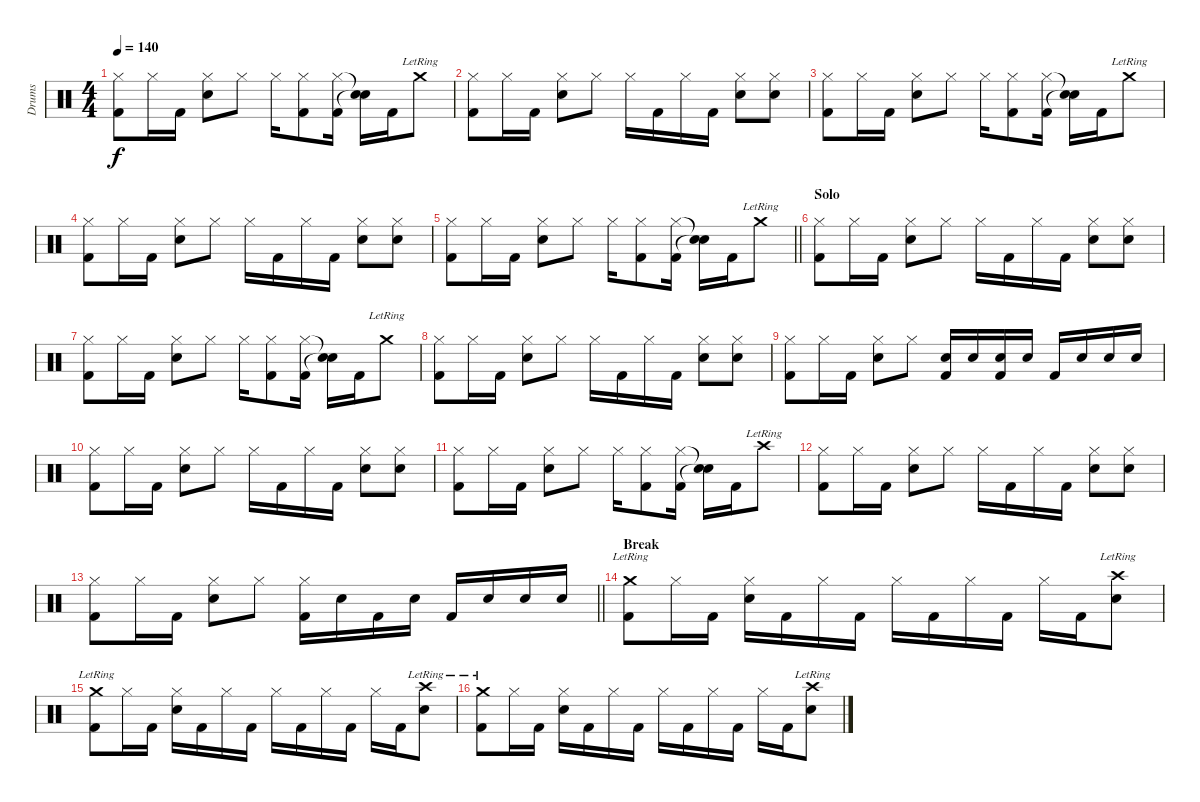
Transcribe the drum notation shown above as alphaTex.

\track ("Drums" "Drums") {instrument percussion}
\staff {score}
\articulation defaults
\ts (4 4)
\tempo 140
\clef neutral
\ks c
("Hi-Hat (closed)" "Kick (hit) 2").8{dy f} "Hi-Hat (closed)".16 "Kick (hit) 2".16 ("Hi-Hat (closed)" "Snare (hit) 2").8 "Hi-Hat (closed)".8 "Hi-Hat (closed)".16 ("Hi-Hat (closed)" "Kick (hit) 2").8 ("Hi-Hat (closed)" "Kick (hit) 2").16 ("Snare (hit)"{t} "Snare (hit)"{t}).16 "Kick (hit) 2".16 "Crash medium (hit)"{lr}.8 |
("Hi-Hat (closed)" "Kick (hit) 2").8 "Hi-Hat (closed)".16 "Kick (hit) 2".16 ("Hi-Hat (closed)" "Snare (hit) 2").8 "Hi-Hat (closed)".8 "Hi-Hat (closed)".16 "Kick (hit) 2".16 "Hi-Hat (closed)".16 "Kick (hit) 2".16 ("Hi-Hat (closed)" "Snare (hit) 2").8 ("Hi-Hat (closed)" "Snare (hit) 2").8 |
("Hi-Hat (closed)" "Kick (hit) 2").8 "Hi-Hat (closed)".16 "Kick (hit) 2".16 ("Hi-Hat (closed)" "Snare (hit) 2").8 "Hi-Hat (closed)".8 "Hi-Hat (closed)".16 ("Hi-Hat (closed)" "Kick (hit) 2").8 ("Hi-Hat (closed)" "Kick (hit) 2").16 ("Snare (hit)"{t} "Snare (hit)"{t}).16 "Kick (hit) 2".16 "Crash medium (hit)"{lr}.8 |
("Hi-Hat (closed)" "Kick (hit) 2").8 "Hi-Hat (closed)".16 "Kick (hit) 2".16 ("Hi-Hat (closed)" "Snare (hit) 2").8 "Hi-Hat (closed)".8 "Hi-Hat (closed)".16 "Kick (hit) 2".16 "Hi-Hat (closed)".16 "Kick (hit) 2".16 ("Hi-Hat (closed)" "Snare (hit) 2").8 ("Hi-Hat (closed)" "Snare (hit) 2").8 |
\barLineRight lightlight
("Hi-Hat (closed)" "Kick (hit) 2").8 "Hi-Hat (closed)".16 "Kick (hit) 2".16 ("Hi-Hat (closed)" "Snare (hit) 2").8 "Hi-Hat (closed)".8 "Hi-Hat (closed)".16 ("Hi-Hat (closed)" "Kick (hit) 2").8 ("Hi-Hat (closed)" "Kick (hit) 2").16 ("Snare (hit)"{t} "Snare (hit)"{t}).16 "Kick (hit) 2".16 "Crash medium (hit)"{lr}.8 |
\section ("" "Solo")
("Hi-Hat (closed)" "Kick (hit) 2").8 "Hi-Hat (closed)".16 "Kick (hit) 2".16 ("Hi-Hat (closed)" "Snare (hit) 2").8 "Hi-Hat (closed)".8 "Hi-Hat (closed)".16 "Kick (hit) 2".16 "Hi-Hat (closed)".16 "Kick (hit) 2".16 ("Hi-Hat (closed)" "Snare (hit) 2").8 ("Hi-Hat (closed)" "Snare (hit) 2").8 |
("Hi-Hat (closed)" "Kick (hit) 2").8 "Hi-Hat (closed)".16 "Kick (hit) 2".16 ("Hi-Hat (closed)" "Snare (hit) 2").8 "Hi-Hat (closed)".8 "Hi-Hat (closed)".16 ("Hi-Hat (closed)" "Kick (hit) 2").8 ("Hi-Hat (closed)" "Kick (hit) 2").16 ("Snare (hit)"{t} "Snare (hit)"{t}).16 "Kick (hit) 2".16 "Crash medium (hit)"{lr}.8 |
("Hi-Hat (closed)" "Kick (hit) 2").8 "Hi-Hat (closed)".16 "Kick (hit) 2".16 ("Hi-Hat (closed)" "Snare (hit) 2").8 "Hi-Hat (closed)".8 "Hi-Hat (closed)".16 "Kick (hit) 2".16 "Hi-Hat (closed)".16 "Kick (hit) 2".16 ("Hi-Hat (closed)" "Snare (hit) 2").8 ("Hi-Hat (closed)" "Snare (hit) 2").8 |
("Hi-Hat (closed)" "Kick (hit) 2").8 "Hi-Hat (closed)".16 "Kick (hit) 2".16 ("Hi-Hat (closed)" "Snare (hit) 2").8 "Hi-Hat (closed)".8 ("Snare (hit) 2" "Kick (hit) 2").16 "Snare (hit) 2".16 ("Snare (hit) 2" "Kick (hit) 2").16 "Snare (hit) 2".16 "Kick (hit) 2".16 "Snare (hit) 2".16 "Snare (hit) 2".16 "Snare (hit) 2".16 |
("Hi-Hat (closed)" "Kick (hit) 2").8 "Hi-Hat (closed)".16 "Kick (hit) 2".16 ("Hi-Hat (closed)" "Snare (hit) 2").8 "Hi-Hat (closed)".8 "Hi-Hat (closed)".16 "Kick (hit) 2".16 "Hi-Hat (closed)".16 "Kick (hit) 2".16 ("Hi-Hat (closed)" "Snare (hit) 2").8 ("Hi-Hat (closed)" "Snare (hit) 2").8 |
("Hi-Hat (closed)" "Kick (hit) 2").8 "Hi-Hat (closed)".16 "Kick (hit) 2".16 ("Hi-Hat (closed)" "Snare (hit) 2").8 "Hi-Hat (closed)".8 "Hi-Hat (closed)".16 ("Hi-Hat (closed)" "Kick (hit) 2").8 ("Hi-Hat (closed)" "Kick (hit) 2").16 ("Snare (hit)"{t} "Snare (hit)"{t}).16 "Kick (hit) 2".16 "Crash high (hit)"{lr}.8 |
("Hi-Hat (closed)" "Kick (hit) 2").8 "Hi-Hat (closed)".16 "Kick (hit) 2".16 ("Hi-Hat (closed)" "Snare (hit) 2").8 "Hi-Hat (closed)".8 "Hi-Hat (closed)".16 "Kick (hit) 2".16 "Hi-Hat (closed)".16 "Kick (hit) 2".16 ("Hi-Hat (closed)" "Snare (hit) 2").8 ("Hi-Hat (closed)" "Snare (hit) 2").8 |
\barLineRight lightlight
("Hi-Hat (closed)" "Kick (hit) 2").8 "Hi-Hat (closed)".16 "Kick (hit) 2".16 ("Hi-Hat (closed)" "Snare (hit) 2").8 "Hi-Hat (closed)".8 ("Hi-Hat (closed)" "Kick (hit) 2").16 "Snare (hit) 2".16 "Kick (hit) 2".16 "Snare (hit) 2".16 "Kick (hit) 2".16 "Snare (hit) 2".16 "Snare (hit) 2".16 "Snare (hit) 2".16 |
\section ("" "Break")
("Crash medium (hit)"{lr} "Kick (hit) 2").8 "Hi-Hat (closed)".16 "Kick (hit) 2".16 ("Hi-Hat (closed)" "Snare (hit) 2").16 "Kick (hit) 2".16 "Hi-Hat (closed)".16 "Kick (hit) 2".16 "Hi-Hat (closed)".16 "Kick (hit) 2".16 "Hi-Hat (closed)".16 "Kick (hit) 2".16 "Hi-Hat (closed)".16 "Kick (hit) 2".16 ("Crash high (hit)"{lr} "Snare (hit) 2").8 |
("Crash medium (hit)"{lr} "Kick (hit) 2").8 "Hi-Hat (closed)".16 "Kick (hit) 2".16 ("Hi-Hat (closed)" "Snare (hit) 2").16 "Kick (hit) 2".16 "Hi-Hat (closed)".16 "Kick (hit) 2".16 "Hi-Hat (closed)".16 "Kick (hit) 2".16 "Hi-Hat (closed)".16 "Kick (hit) 2".16 "Hi-Hat (closed)".16 "Kick (hit) 2".16 ("Crash high (hit)"{lr} "Snare (hit) 2").8 |
("Crash medium (hit)"{lr} "Kick (hit) 2").8 "Hi-Hat (closed)".16 "Kick (hit) 2".16 ("Hi-Hat (closed)" "Snare (hit) 2").16 "Kick (hit) 2".16 "Hi-Hat (closed)".16 "Kick (hit) 2".16 "Hi-Hat (closed)".16 "Kick (hit) 2".16 "Hi-Hat (closed)".16 "Kick (hit) 2".16 "Hi-Hat (closed)".16 "Kick (hit) 2".16 ("Crash high (hit)"{lr} "Snare (hit) 2").8
